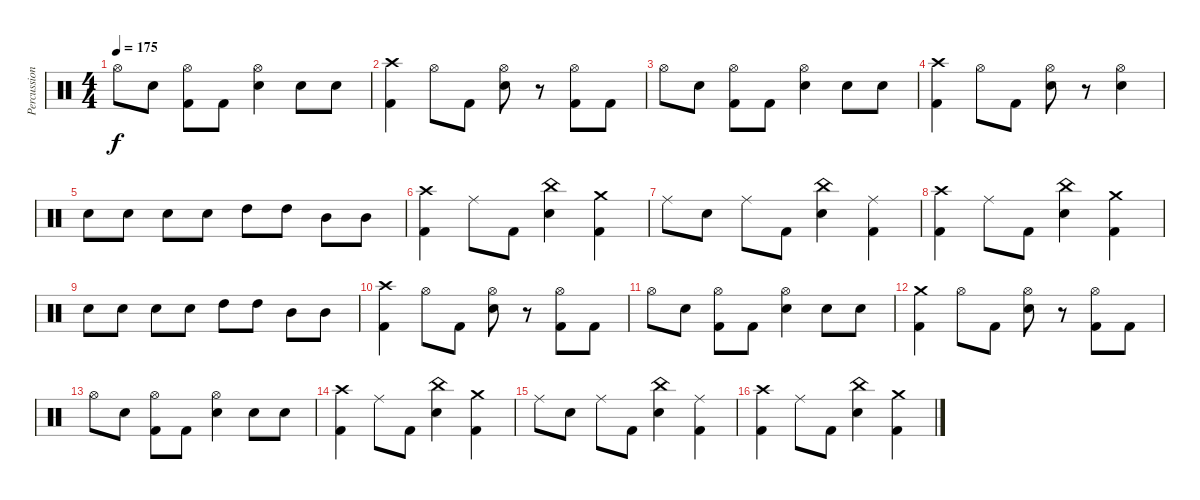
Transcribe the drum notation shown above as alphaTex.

\track ("Percussion" "Percussion") {instrument percussion}
\staff {score}
\articulation defaults
\ts (4 4)
\tempo 175
\clef neutral
\ks c "Hi-Hat (open)".8{dy f} "Electric Snare (hit)".8
("Hi-Hat (open)" "Kick (hit) 2").8 "Kick (hit) 2".8 ("Hi-Hat (open)" "Electric Snare (hit)").4 "Electric Snare (hit)".8 "Electric Snare (hit)".8 |
("Crash high (hit)" "Kick (hit) 2").4 "Hi-Hat (open)".8 "Kick (hit) 2".8 ("Hi-Hat (open)" "Electric Snare (hit)").8 r.8 ("Hi-Hat (open)" "Kick (hit) 2").8 "Kick (hit) 2".8 |
"Hi-Hat (open)".8 "Electric Snare (hit)".8 ("Hi-Hat (open)" "Kick (hit) 2").8 "Kick (hit) 2".8 ("Hi-Hat (open)" "Electric Snare (hit)").4 "Electric Snare (hit)".8 "Electric Snare (hit)".8 |
("Crash high (hit)" "Kick (hit) 2").4 "Hi-Hat (open)".8 "Kick (hit) 2".8 ("Hi-Hat (open)" "Electric Snare (hit)").8 r.8 ("Hi-Hat (open)" "Electric Snare (hit)").4 |
"Electric Snare (hit)".8 "Electric Snare (hit)".8 "Electric Snare (hit)".8 "Electric Snare (hit)".8 "High Tom (hit)".8 "High Tom (hit)".8 "Mid Tom (hit)".8 "Mid Tom (hit)".8 |
("Crash high (hit)" "Kick (hit) 2").4 "Ride (middle)".8 "Kick (hit) 2".8 ("China (hit)" "Electric Snare (hit)").4 ("Crash medium (hit)" "Kick (hit) 2").4 |
"Ride (middle)".8 "Electric Snare (hit)".8 "Ride (middle)".8 "Kick (hit) 2".8 ("China (hit)" "Electric Snare (hit)").4 ("Ride (middle)" "Kick (hit) 2").4 |
("Crash high (hit)" "Kick (hit) 2").4 "Ride (middle)".8 "Kick (hit) 2".8 ("China (hit)" "Electric Snare (hit)").4 ("Crash medium (hit)" "Kick (hit) 2").4 |
"Electric Snare (hit)".8 "Electric Snare (hit)".8 "Electric Snare (hit)".8 "Electric Snare (hit)".8 "High Tom (hit)".8 "High Tom (hit)".8 "Mid Tom (hit)".8 "Mid Tom (hit)".8 |
("Crash high (hit)" "Kick (hit) 2").4 "Hi-Hat (open)".8 "Kick (hit) 2".8 ("Hi-Hat (open)" "Electric Snare (hit)").8 r.8 ("Hi-Hat (open)" "Kick (hit) 2").8 "Kick (hit) 2".8 |
"Hi-Hat (open)".8 "Electric Snare (hit)".8 ("Hi-Hat (open)" "Kick (hit) 2").8 "Kick (hit) 2".8 ("Hi-Hat (open)" "Electric Snare (hit)").4 "Electric Snare (hit)".8 "Electric Snare (hit)".8 |
("Crash medium (hit)" "Kick (hit) 2").4 "Hi-Hat (open)".8 "Kick (hit) 2".8 ("Hi-Hat (open)" "Electric Snare (hit)").8 r.8 ("Hi-Hat (open)" "Kick (hit) 2").8 "Kick (hit) 2".8 |
"Hi-Hat (open)".8 "Electric Snare (hit)".8 ("Hi-Hat (open)" "Kick (hit) 2").8 "Kick (hit) 2".8 ("Hi-Hat (open)" "Electric Snare (hit)").4 "Electric Snare (hit)".8 "Electric Snare (hit)".8 |
("Crash high (hit)" "Kick (hit) 2").4 "Ride (middle)".8 "Kick (hit) 2".8 ("China (hit)" "Electric Snare (hit)").4 ("Crash medium (hit)" "Kick (hit) 2").4 |
"Ride (middle)".8 "Electric Snare (hit)".8 "Ride (middle)".8 "Kick (hit) 2".8 ("China (hit)" "Electric Snare (hit)").4 ("Ride (middle)" "Kick (hit) 2").4 |
("Crash high (hit)" "Kick (hit) 2").4 "Ride (middle)".8 "Kick (hit) 2".8 ("China (hit)" "Electric Snare (hit)").4 ("Crash medium (hit)" "Kick (hit) 2").4
